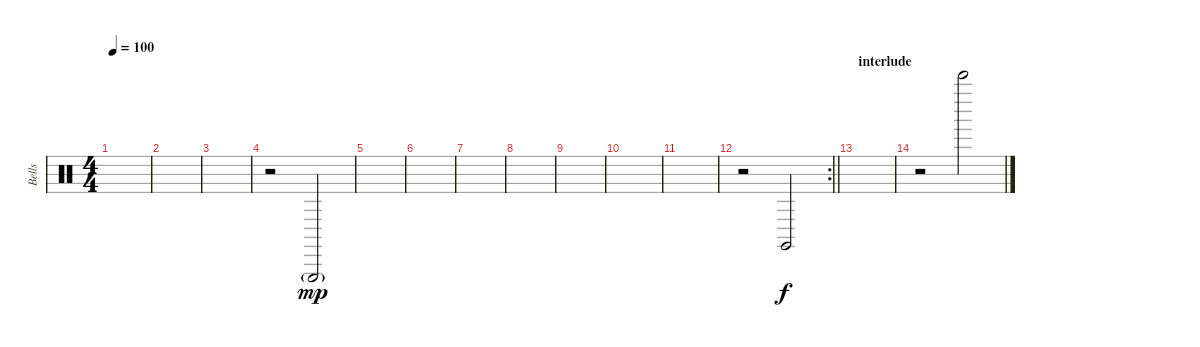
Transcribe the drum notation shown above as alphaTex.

\track ("Bells" "Bells") {instrument percussion}
\staff {score}
\articulation defaults
\ts (4 4)
\tempo 100
\clef neutral
\ks c
|
|
|
r.2 "Triangle (hit)"{g}.2{dy mp} |
|
|
|
|
|
|
|
\rc 2
\barLineRight lightlight
r.2 "Claves (hit)".2{dy f} |
\section ("" "interlude")
|
r.2 "Bell Tree (hit)".2
